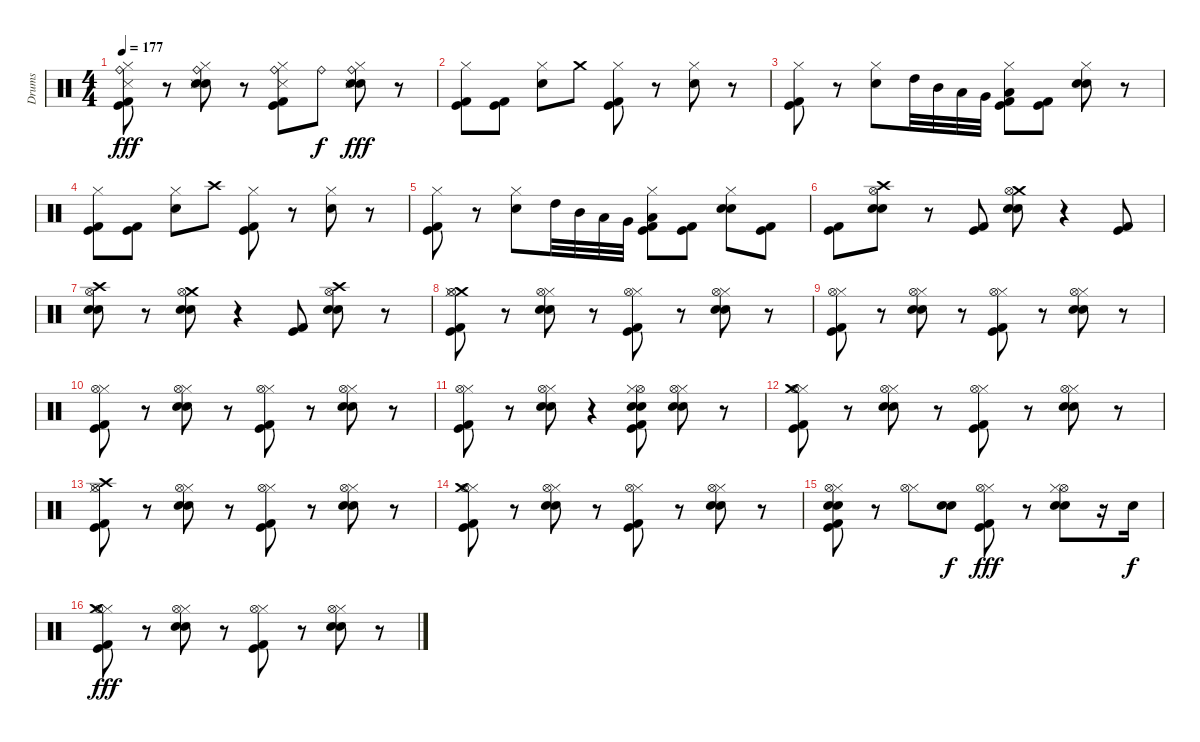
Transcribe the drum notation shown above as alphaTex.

\track ("Drums" "Drums") {instrument percussion}
\staff {score}
\articulation defaults
\ts (4 4)
\tempo 177
\clef neutral
\ks c
("Hi-Hat (closed)" "Kick (hit) 2" "Kick (hit)" "Snare (side stick) 3" "Ride (bell)").8{dy fff} r.8 ("Hi-Hat (closed)" "Electric Snare (hit)" "Snare (hit) 2" "Snare (side stick) 3" "Ride (bell)").8 r.8 ("Hi-Hat (closed)" "Kick (hit) 2" "Kick (hit)" "Snare (side stick) 3" "Ride (bell)").8 "Ride (bell)".8{dy f} ("Hi-Hat (closed)" "Electric Snare (hit)" "Snare (hit) 2" "Snare (side stick) 3" "Ride (bell)").8{dy fff} r.8 |
("Hi-Hat (closed)" "Kick (hit) 2" "Kick (hit)").8 ("Kick (hit) 2" "Kick (hit)").8 ("Hi-Hat (closed)" "Electric Snare (hit)").8 "Crash medium (hit)".8 ("Hi-Hat (closed)" "Kick (hit) 2" "Kick (hit)").8 r.8 ("Hi-Hat (closed)" "Electric Snare (hit)").8 r.8 |
("Hi-Hat (closed)" "Kick (hit) 2" "Kick (hit)").8 r.8 ("Hi-Hat (closed)" "Electric Snare (hit)").8 "High Tom (hit)".32 "Mid Tom (hit)".32 "Low Tom (hit)".32 "Very Low Tom (hit)".32 ("Hi-Hat (closed)" "Kick (hit) 2" "Kick (hit)" "Low Floor Tom (hit)").8 ("Kick (hit) 2" "Kick (hit)").8 ("Hi-Hat (closed)" "Electric Snare (hit)" "Snare (hit) 2").8 r.8 |
("Hi-Hat (closed)" "Kick (hit) 2" "Kick (hit)").8 ("Kick (hit) 2" "Kick (hit)").8 ("Hi-Hat (closed)" "Electric Snare (hit)").8 "Crash high (hit)".8 ("Hi-Hat (closed)" "Kick (hit) 2" "Kick (hit)").8 r.8 ("Hi-Hat (closed)" "Electric Snare (hit)").8 r.8 |
("Hi-Hat (closed)" "Kick (hit) 2" "Kick (hit)").8 r.8 ("Hi-Hat (closed)" "Electric Snare (hit)").8 "High Tom (hit)".32 "Mid Tom (hit)".32 "Low Tom (hit)".32 "Very Low Tom (hit)".32 ("Hi-Hat (closed)" "Kick (hit) 2" "Kick (hit)" "Low Floor Tom (hit)").8 ("Kick (hit) 2" "Kick (hit)").8 ("Hi-Hat (closed)" "Electric Snare (hit)" "Snare (hit) 2").8 ("Kick (hit) 2" "Kick (hit)").8 |
("Kick (hit) 2" "Kick (hit)").8 ("Crash high (hit)" "Electric Snare (hit)" "Snare (hit) 2" "Hi-Hat (open)").8 r.8 ("Kick (hit) 2" "Kick (hit)").8 ("Crash medium (hit)" "Hi-Hat (open)" "Electric Snare (hit)" "Snare (hit) 2").8 r.4 ("Kick (hit) 2" "Kick (hit)").8 |
("Crash high (hit)" "Hi-Hat (open)" "Electric Snare (hit)" "Snare (hit) 2").8 r.8 ("Crash medium (hit)" "Hi-Hat (open)" "Electric Snare (hit)" "Snare (hit) 2").8 r.4 ("Kick (hit) 2" "Kick (hit)").8 ("Crash high (hit)" "Hi-Hat (open)" "Electric Snare (hit)" "Snare (hit) 2").8 r.8 |
("Crash medium (hit)" "Kick (hit) 2" "Kick (hit)" "Hi-Hat (closed)" "Hi-Hat (open)").8 r.8 ("Electric Snare (hit)" "Snare (hit) 2" "Hi-Hat (closed)" "Hi-Hat (open)").8 r.8 ("Kick (hit) 2" "Kick (hit)" "Hi-Hat (closed)" "Hi-Hat (open)").8 r.8 ("Electric Snare (hit)" "Snare (hit) 2" "Hi-Hat (closed)" "Hi-Hat (open)").8 r.8 |
("Kick (hit) 2" "Kick (hit)" "Hi-Hat (closed)" "Hi-Hat (open)").8 r.8 ("Electric Snare (hit)" "Snare (hit) 2" "Hi-Hat (closed)" "Hi-Hat (open)").8 r.8 ("Kick (hit) 2" "Kick (hit)" "Hi-Hat (closed)" "Hi-Hat (open)").8 r.8 ("Electric Snare (hit)" "Snare (hit) 2" "Hi-Hat (closed)" "Hi-Hat (open)").8 r.8 |
("Kick (hit) 2" "Kick (hit)" "Hi-Hat (closed)" "Hi-Hat (open)").8 r.8 ("Electric Snare (hit)" "Snare (hit) 2" "Hi-Hat (closed)" "Hi-Hat (open)").8 r.8 ("Kick (hit) 2" "Kick (hit)" "Hi-Hat (closed)" "Hi-Hat (open)").8 r.8 ("Electric Snare (hit)" "Snare (hit) 2" "Hi-Hat (closed)" "Hi-Hat (open)").8 r.8 |
("Kick (hit) 2" "Kick (hit)" "Hi-Hat (closed)" "Hi-Hat (open)").8 r.8 ("Hi-Hat (closed)" "Electric Snare (hit)" "Snare (hit) 2" "Hi-Hat (open)").8 r.4 ("Electric Snare (hit)" "Hi-Hat (open)" "Hi-Hat (closed)" "Kick (hit) 2" "Kick (hit)" "Snare (hit) 2").8 ("Hi-Hat (closed)" "Electric Snare (hit)" "Snare (hit) 2" "Hi-Hat (open)").8 r.8 |
("Kick (hit) 2" "Kick (hit)" "Hi-Hat (closed)" "Hi-Hat (open)" "Crash medium (hit)").8 r.8 ("Electric Snare (hit)" "Snare (hit) 2" "Hi-Hat (closed)" "Hi-Hat (open)").8 r.8 ("Kick (hit) 2" "Kick (hit)" "Hi-Hat (closed)" "Hi-Hat (open)").8 r.8 ("Electric Snare (hit)" "Snare (hit) 2" "Hi-Hat (closed)" "Hi-Hat (open)").8 r.8 |
("Kick (hit) 2" "Kick (hit)" "Hi-Hat (closed)" "Hi-Hat (open)" "Crash high (hit)").8 r.8 ("Electric Snare (hit)" "Snare (hit) 2" "Hi-Hat (closed)" "Hi-Hat (open)").8 r.8 ("Kick (hit) 2" "Kick (hit)" "Hi-Hat (closed)" "Hi-Hat (open)").8 r.8 ("Electric Snare (hit)" "Snare (hit) 2" "Hi-Hat (closed)" "Hi-Hat (open)").8 r.8 |
("Kick (hit) 2" "Kick (hit)" "Hi-Hat (closed)" "Hi-Hat (open)" "Crash medium (hit)").8 r.8 ("Electric Snare (hit)" "Snare (hit) 2" "Hi-Hat (closed)" "Hi-Hat (open)").8 r.8 ("Kick (hit) 2" "Kick (hit)" "Hi-Hat (closed)" "Hi-Hat (open)").8 r.8 ("Electric Snare (hit)" "Snare (hit) 2" "Hi-Hat (closed)" "Hi-Hat (open)").8 r.8 |
("Kick (hit) 2" "Kick (hit)" "Hi-Hat (closed)" "Hi-Hat (open)" "Snare (hit) 2" "Electric Snare (hit)").8 r.8 ("Hi-Hat (closed)" "Hi-Hat (open)").8 ("Electric Snare (hit)" "Snare (hit) 2").8{dy f} ("Kick (hit) 2" "Kick (hit)" "Hi-Hat (closed)" "Hi-Hat (open)").8{dy fff} r.8 ("Electric Snare (hit)" "Snare (hit) 2" "Hi-Hat (open)" "Hi-Hat (closed)").8 r.16 "Electric Snare (hit)".16{dy f} |
("Kick (hit) 2" "Kick (hit)" "Hi-Hat (closed)" "Hi-Hat (open)" "Crash medium (hit)").8{dy fff} r.8 ("Electric Snare (hit)" "Snare (hit) 2" "Hi-Hat (closed)" "Hi-Hat (open)").8 r.8 ("Kick (hit) 2" "Kick (hit)" "Hi-Hat (closed)" "Hi-Hat (open)").8 r.8 ("Electric Snare (hit)" "Snare (hit) 2" "Hi-Hat (closed)" "Hi-Hat (open)").8 r.8
